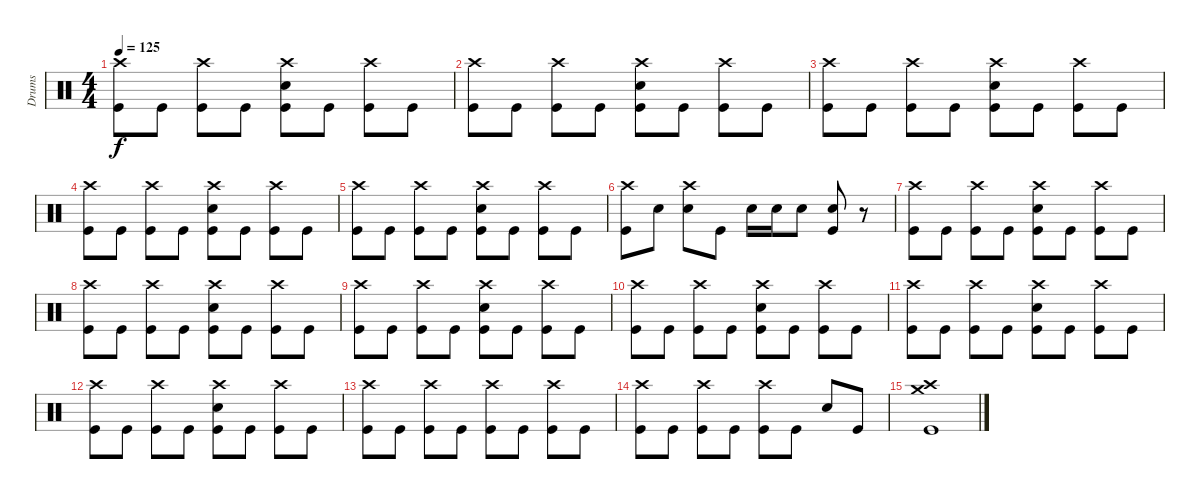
\track ("Drums" "Drums") {instrument percussion}
\staff {score}
\articulation defaults
\ts (4 4)
\tempo 125
\clef neutral
\ks c
("Crash high (hit)" "Kick (hit)").8{dy f} "Kick (hit)".8 ("Crash high (hit)" "Kick (hit)").8 "Kick (hit)".8 ("Crash high (hit)" "Electric Snare (hit)" "Kick (hit)").8 "Kick (hit)".8 ("Crash high (hit)" "Kick (hit)").8 "Kick (hit)".8 |
("Crash high (hit)" "Kick (hit)").8 "Kick (hit)".8 ("Crash high (hit)" "Kick (hit)").8 "Kick (hit)".8 ("Crash high (hit)" "Electric Snare (hit)" "Kick (hit)").8 "Kick (hit)".8 ("Crash high (hit)" "Kick (hit)").8 "Kick (hit)".8 |
("Crash high (hit)" "Kick (hit)").8 "Kick (hit)".8 ("Crash high (hit)" "Kick (hit)").8 "Kick (hit)".8 ("Crash high (hit)" "Electric Snare (hit)" "Kick (hit)").8 "Kick (hit)".8 ("Crash high (hit)" "Kick (hit)").8 "Kick (hit)".8 |
("Crash high (hit)" "Kick (hit)").8 "Kick (hit)".8 ("Crash high (hit)" "Kick (hit)").8 "Kick (hit)".8 ("Crash high (hit)" "Electric Snare (hit)" "Kick (hit)").8 "Kick (hit)".8 ("Crash high (hit)" "Kick (hit)").8 "Kick (hit)".8 |
("Crash high (hit)" "Kick (hit)").8 "Kick (hit)".8 ("Crash high (hit)" "Kick (hit)").8 "Kick (hit)".8 ("Crash high (hit)" "Electric Snare (hit)" "Kick (hit)").8 "Kick (hit)".8 ("Crash high (hit)" "Kick (hit)").8 "Kick (hit)".8 |
("Crash high (hit)" "Kick (hit)").8 "Electric Snare (hit)".8 ("Crash high (hit)" "Electric Snare (hit)").8 "Kick (hit)".8 "Electric Snare (hit)".16 "Electric Snare (hit)".16 "Electric Snare (hit)".8 ("Electric Snare (hit)" "Kick (hit)").8 r.8 |
("Crash high (hit)" "Kick (hit)").8 "Kick (hit)".8 ("Crash high (hit)" "Kick (hit)").8 "Kick (hit)".8 ("Crash high (hit)" "Electric Snare (hit)" "Kick (hit)").8 "Kick (hit)".8 ("Crash high (hit)" "Kick (hit)").8 "Kick (hit)".8 |
("Crash high (hit)" "Kick (hit)").8 "Kick (hit)".8 ("Crash high (hit)" "Kick (hit)").8 "Kick (hit)".8 ("Crash high (hit)" "Electric Snare (hit)" "Kick (hit)").8 "Kick (hit)".8 ("Crash high (hit)" "Kick (hit)").8 "Kick (hit)".8 |
("Crash high (hit)" "Kick (hit)").8 "Kick (hit)".8 ("Crash high (hit)" "Kick (hit)").8 "Kick (hit)".8 ("Crash high (hit)" "Electric Snare (hit)" "Kick (hit)").8 "Kick (hit)".8 ("Crash high (hit)" "Kick (hit)").8 "Kick (hit)".8 |
("Crash high (hit)" "Kick (hit)").8 "Kick (hit)".8 ("Crash high (hit)" "Kick (hit)").8 "Kick (hit)".8 ("Crash high (hit)" "Electric Snare (hit)" "Kick (hit)").8 "Kick (hit)".8 ("Crash high (hit)" "Kick (hit)").8 "Kick (hit)".8 |
("Crash high (hit)" "Kick (hit)").8 "Kick (hit)".8 ("Crash high (hit)" "Kick (hit)").8 "Kick (hit)".8 ("Crash high (hit)" "Electric Snare (hit)" "Kick (hit)").8 "Kick (hit)".8 ("Crash high (hit)" "Kick (hit)").8 "Kick (hit)".8 |
("Crash high (hit)" "Kick (hit)").8 "Kick (hit)".8 ("Crash high (hit)" "Kick (hit)").8 "Kick (hit)".8 ("Crash high (hit)" "Electric Snare (hit)" "Kick (hit)").8 "Kick (hit)".8 ("Crash high (hit)" "Kick (hit)").8 "Kick (hit)".8 |
("Crash high (hit)" "Kick (hit)").8 "Kick (hit)".8 ("Crash high (hit)" "Kick (hit)").8 "Kick (hit)".8 ("Crash high (hit)" "Kick (hit)").8 "Kick (hit)".8 ("Crash high (hit)" "Kick (hit)").8 "Kick (hit)".8 |
("Crash high (hit)" "Kick (hit)").8 "Kick (hit)".8 ("Crash high (hit)" "Kick (hit)").8 "Kick (hit)".8 ("Crash high (hit)" "Kick (hit)").8 "Kick (hit)".8 "Electric Snare (hit)".8 "Kick (hit)".8 |
("Crash medium (hit)" "Crash high (hit)" "Kick (hit)").1
